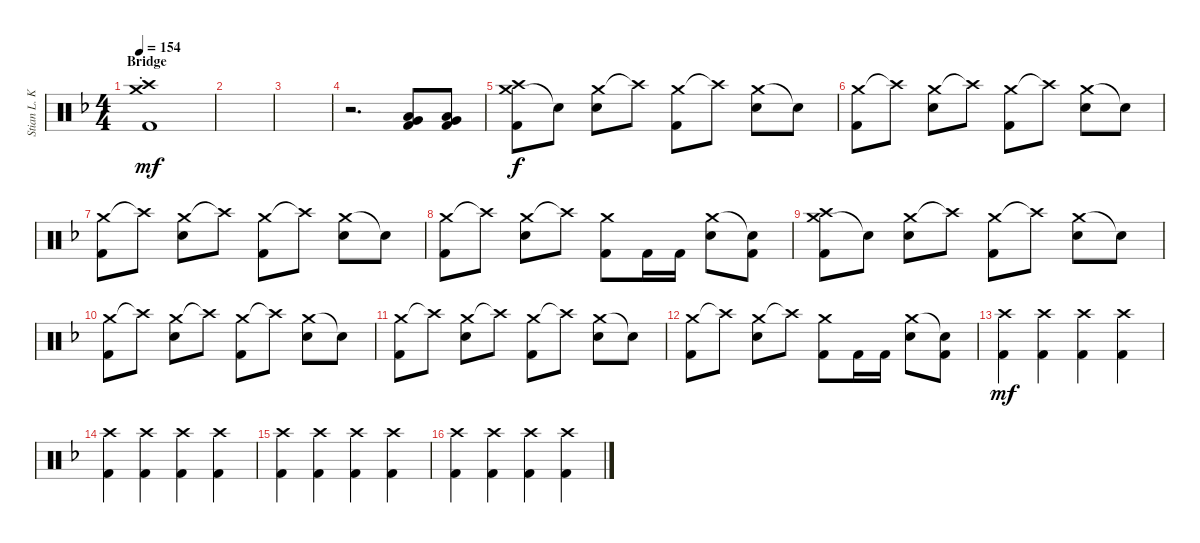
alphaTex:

\track ("Stian L. Kristoffersen" "Stian L. K") {instrument percussion}
\staff {score}
\articulation defaults
\ts (4 4)
\section ("" "Bridge")
\tempo 154
\clef neutral
\ks f
("Kick (hit) 2"{st} "Crash medium (hit)" "Crash high (hit)").1{dy mf} |
|
|
r.2{d} ("Low Tom (hit)" "Very Low Tom (hit)" "Kick (hit) 2").8 ("Low Tom (hit)" "Very Low Tom (hit)" "Kick (hit) 2").8 |
("Crash medium (hit)" "Crash high (hit)" "Kick (hit) 2").8{dy f} "Snare (hit)"{t}.8 ("Crash medium (hit)" "Snare (hit) 2").8 "Crash high (hit)"{t}.8 ("Crash medium (hit)" "Kick (hit) 2").8 "Crash high (hit)"{t}.8 ("Crash medium (hit)" "Snare (hit) 2").8 "Snare (hit)"{t}.8 |
("Crash medium (hit)" "Kick (hit) 2").8 "Crash high (hit)"{t}.8 ("Crash medium (hit)" "Snare (hit) 2").8 "Crash high (hit)"{t}.8 ("Crash medium (hit)" "Kick (hit) 2").8 "Crash high (hit)"{t}.8 ("Crash medium (hit)" "Snare (hit) 2").8 "Snare (hit)"{t}.8 |
("Crash medium (hit)" "Kick (hit) 2").8 "Crash high (hit)"{t}.8 ("Crash medium (hit)" "Snare (hit) 2").8 "Crash high (hit)"{t}.8 ("Crash medium (hit)" "Kick (hit) 2").8 "Crash high (hit)"{t}.8 ("Crash medium (hit)" "Snare (hit) 2").8 "Snare (hit)"{t}.8 |
("Crash medium (hit)" "Kick (hit) 2").8 "Crash high (hit)"{t}.8 ("Crash medium (hit)" "Snare (hit) 2").8 "Crash high (hit)"{t}.8 ("Crash medium (hit)" "Kick (hit) 2").8 "Kick (hit) 2".16 "Kick (hit) 2".16 ("Crash medium (hit)" "Snare (hit) 2").8 ("Snare (hit)"{t} "Kick (hit) 2").8 |
("Crash medium (hit)" "Crash high (hit)" "Kick (hit) 2").8 "Snare (hit)"{t}.8 ("Crash medium (hit)" "Snare (hit) 2").8 "Crash high (hit)"{t}.8 ("Crash medium (hit)" "Kick (hit) 2").8 "Crash high (hit)"{t}.8 ("Crash medium (hit)" "Snare (hit) 2").8 "Snare (hit)"{t}.8 |
("Crash medium (hit)" "Kick (hit) 2").8 "Crash high (hit)"{t}.8 ("Crash medium (hit)" "Snare (hit) 2").8 "Crash high (hit)"{t}.8 ("Crash medium (hit)" "Kick (hit) 2").8 "Crash high (hit)"{t}.8 ("Crash medium (hit)" "Snare (hit) 2").8 "Snare (hit)"{t}.8 |
("Crash medium (hit)" "Kick (hit) 2").8 "Crash high (hit)"{t}.8 ("Crash medium (hit)" "Snare (hit) 2").8 "Crash high (hit)"{t}.8 ("Crash medium (hit)" "Kick (hit) 2").8 "Crash high (hit)"{t}.8 ("Crash medium (hit)" "Snare (hit) 2").8 "Snare (hit)"{t}.8 |
("Crash medium (hit)" "Kick (hit) 2").8 "Crash high (hit)"{t}.8 ("Crash medium (hit)" "Snare (hit) 2").8 "Crash high (hit)"{t}.8 ("Crash medium (hit)" "Kick (hit) 2").8 "Kick (hit) 2".16 "Kick (hit) 2".16 ("Crash medium (hit)" "Snare (hit) 2").8 ("Snare (hit)"{t} "Kick (hit) 2").8 |
("Crash high (hit)" "Kick (hit) 2").4{dy mf} ("Crash high (hit)" "Kick (hit) 2").4 ("Crash high (hit)" "Kick (hit) 2").4 ("Crash high (hit)" "Kick (hit) 2").4 |
("Crash high (hit)" "Kick (hit) 2").4 ("Crash high (hit)" "Kick (hit) 2").4 ("Crash high (hit)" "Kick (hit) 2").4 ("Crash high (hit)" "Kick (hit) 2").4 |
("Crash high (hit)" "Kick (hit) 2").4 ("Crash high (hit)" "Kick (hit) 2").4 ("Crash high (hit)" "Kick (hit) 2").4 ("Crash high (hit)" "Kick (hit) 2").4 |
("Crash high (hit)" "Kick (hit) 2").4 ("Crash high (hit)" "Kick (hit) 2").4 ("Crash high (hit)" "Kick (hit) 2").4 ("Crash high (hit)" "Kick (hit) 2").4
